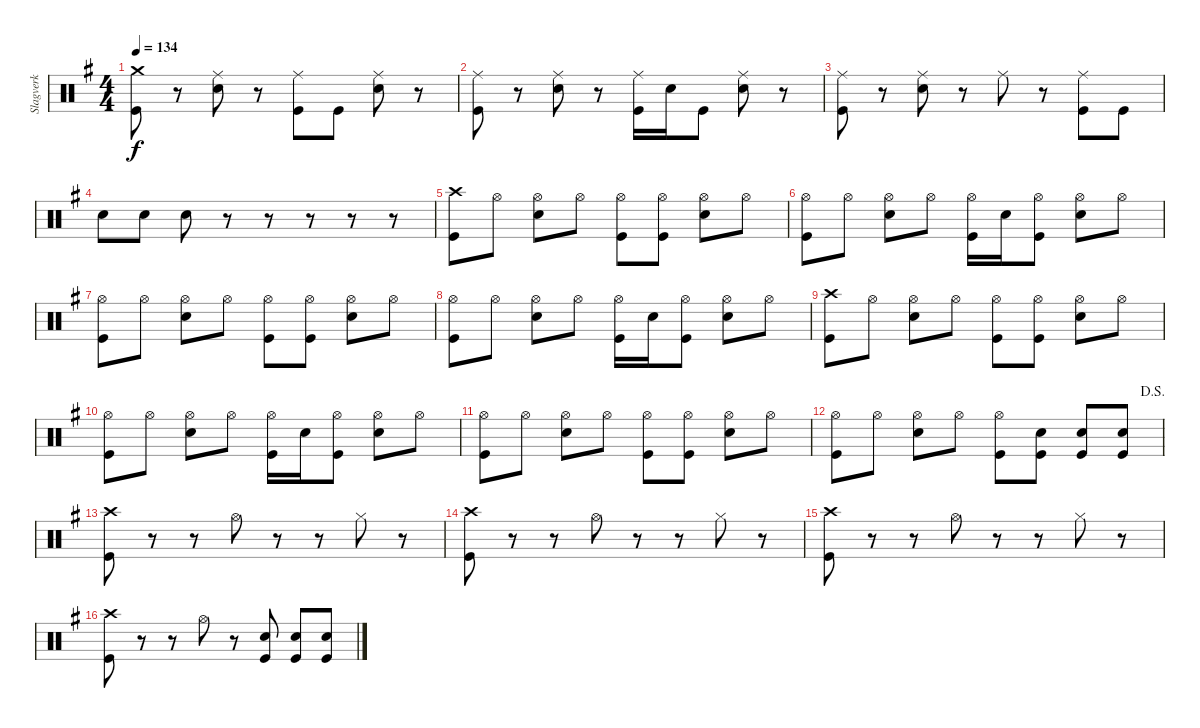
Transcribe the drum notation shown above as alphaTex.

\track ("Slagverk" "Slagverk") {instrument percussion}
\staff {score}
\articulation defaults
\ts (4 4)
\tempo 134
\clef neutral
\ks g
("Crash medium (hit)" "Kick (hit)").8{dy f} r.8 ("Ride (middle)" "Electric Snare (hit)").8 r.8 ("Ride (middle)" "Kick (hit)").8 "Kick (hit)".8 ("Ride (middle)" "Electric Snare (hit)").8 r.8 |
("Ride (middle)" "Kick (hit)").8 r.8 ("Ride (middle)" "Electric Snare (hit)").8 r.8 ("Ride (middle)" "Kick (hit)").16 "Electric Snare (hit)".16 "Kick (hit)".8 ("Ride (middle)" "Electric Snare (hit)").8 r.8 |
("Ride (middle)" "Kick (hit)").8 r.8 ("Ride (middle)" "Electric Snare (hit)").8 r.8 "Ride (middle)".8 r.8 ("Ride (middle)" "Kick (hit)").8 "Kick (hit)".8 |
"Electric Snare (hit)".8 "Electric Snare (hit)".8 "Electric Snare (hit)".8 r.8 r.8 r.8 r.8 r.8 |
("Crash high (hit)" "Kick (hit)").8 "Hi-Hat (open)".8 ("Hi-Hat (open)" "Electric Snare (hit)").8 "Hi-Hat (open)".8 ("Hi-Hat (open)" "Kick (hit)").8 ("Hi-Hat (open)" "Kick (hit)").8 ("Hi-Hat (open)" "Electric Snare (hit)").8 "Hi-Hat (open)".8 |
("Hi-Hat (open)" "Kick (hit)").8 "Hi-Hat (open)".8 ("Hi-Hat (open)" "Electric Snare (hit)").8 "Hi-Hat (open)".8 ("Hi-Hat (open)" "Kick (hit)").16 "Electric Snare (hit)".16 ("Hi-Hat (open)" "Kick (hit)").8 ("Hi-Hat (open)" "Electric Snare (hit)").8 "Hi-Hat (open)".8 |
("Hi-Hat (open)" "Kick (hit)").8 "Hi-Hat (open)".8 ("Hi-Hat (open)" "Electric Snare (hit)").8 "Hi-Hat (open)".8 ("Hi-Hat (open)" "Kick (hit)").8 ("Hi-Hat (open)" "Kick (hit)").8 ("Hi-Hat (open)" "Electric Snare (hit)").8 "Hi-Hat (open)".8 |
("Hi-Hat (open)" "Kick (hit)").8 "Hi-Hat (open)".8 ("Hi-Hat (open)" "Electric Snare (hit)").8 "Hi-Hat (open)".8 ("Hi-Hat (open)" "Kick (hit)").16 "Electric Snare (hit)".16 ("Hi-Hat (open)" "Kick (hit)").8 ("Hi-Hat (open)" "Electric Snare (hit)").8 "Hi-Hat (open)".8 |
("Crash high (hit)" "Kick (hit)").8 "Hi-Hat (open)".8 ("Hi-Hat (open)" "Electric Snare (hit)").8 "Hi-Hat (open)".8 ("Hi-Hat (open)" "Kick (hit)").8 ("Hi-Hat (open)" "Kick (hit)").8 ("Hi-Hat (open)" "Electric Snare (hit)").8 "Hi-Hat (open)".8 |
("Hi-Hat (open)" "Kick (hit)").8 "Hi-Hat (open)".8 ("Hi-Hat (open)" "Electric Snare (hit)").8 "Hi-Hat (open)".8 ("Hi-Hat (open)" "Kick (hit)").16 "Electric Snare (hit)".16 ("Hi-Hat (open)" "Kick (hit)").8 ("Hi-Hat (open)" "Electric Snare (hit)").8 "Hi-Hat (open)".8 |
("Hi-Hat (open)" "Kick (hit)").8 "Hi-Hat (open)".8 ("Hi-Hat (open)" "Electric Snare (hit)").8 "Hi-Hat (open)".8 ("Hi-Hat (open)" "Kick (hit)").8 ("Hi-Hat (open)" "Kick (hit)").8 ("Hi-Hat (open)" "Electric Snare (hit)").8 "Hi-Hat (open)".8 |
\jump dalsegno
("Hi-Hat (open)" "Kick (hit)").8 "Hi-Hat (open)".8 ("Hi-Hat (open)" "Electric Snare (hit)").8 "Hi-Hat (open)".8 ("Hi-Hat (open)" "Kick (hit)").8 ("Electric Snare (hit)" "Kick (hit)").8 ("Electric Snare (hit)" "Kick (hit)").8 ("Electric Snare (hit)" "Kick (hit)").8 |
("Crash high (hit)" "Kick (hit)").8 r.8 r.8 "Hi-Hat (open)".8 r.8 r.8 "Hi-Hat (closed)".8 r.8 |
("Crash high (hit)" "Kick (hit)").8 r.8 r.8 "Hi-Hat (open)".8 r.8 r.8 "Hi-Hat (closed)".8 r.8 |
("Crash high (hit)" "Kick (hit)").8 r.8 r.8 "Hi-Hat (open)".8 r.8 r.8 "Hi-Hat (closed)".8 r.8 |
("Crash high (hit)" "Kick (hit)").8 r.8 r.8 "Hi-Hat (open)".8 r.8 ("Electric Snare (hit)" "Kick (hit)").8 ("Electric Snare (hit)" "Kick (hit)").8 ("Electric Snare (hit)" "Kick (hit)").8
